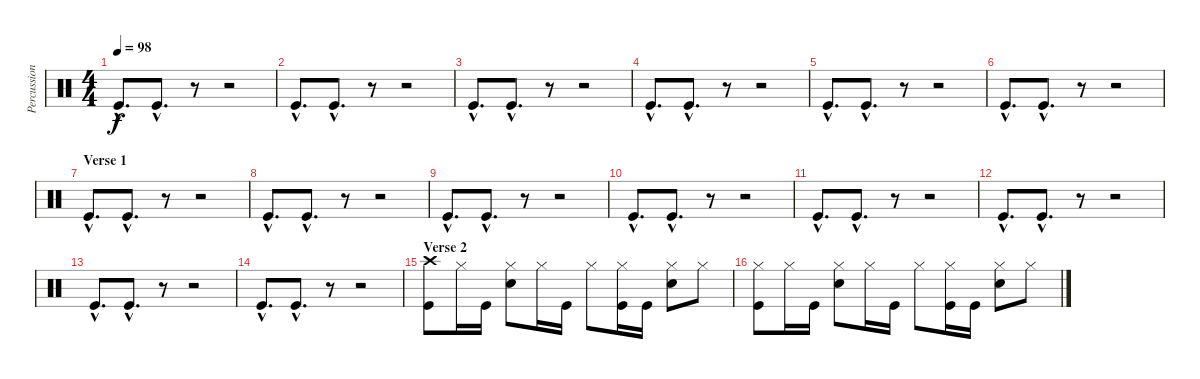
\track ("Percussion" "Percussion") {instrument percussion}
\staff {score}
\articulation defaults
\ts (4 4)
\tempo 98
\clef neutral
\ks c "Kick (hit)"{hac}.8{d dy f} "Kick (hit)"{hac}.8{d}
r.8 r.2 |
"Kick (hit)"{hac}.8{d} "Kick (hit)"{hac}.8{d} r.8 r.2 |
"Kick (hit)"{hac}.8{d} "Kick (hit)"{hac}.8{d} r.8 r.2 |
"Kick (hit)"{hac}.8{d} "Kick (hit)"{hac}.8{d} r.8 r.2 |
"Kick (hit)"{hac}.8{d} "Kick (hit)"{hac}.8{d} r.8 r.2 |
"Kick (hit)"{hac}.8{d} "Kick (hit)"{hac}.8{d} r.8 r.2 |
\section ("" "Verse 1")
"Kick (hit)"{hac}.8{d} "Kick (hit)"{hac}.8{d} r.8 r.2 |
"Kick (hit)"{hac}.8{d} "Kick (hit)"{hac}.8{d} r.8 r.2 |
"Kick (hit)"{hac}.8{d} "Kick (hit)"{hac}.8{d} r.8 r.2 |
"Kick (hit)"{hac}.8{d} "Kick (hit)"{hac}.8{d} r.8 r.2 |
"Kick (hit)"{hac}.8{d} "Kick (hit)"{hac}.8{d} r.8 r.2 |
"Kick (hit)"{hac}.8{d} "Kick (hit)"{hac}.8{d} r.8 r.2 |
"Kick (hit)"{hac}.8{d} "Kick (hit)"{hac}.8{d} r.8 r.2 |
"Kick (hit)"{hac}.8{d} "Kick (hit)"{hac}.8{d} r.8 r.2 |
\section ("" "Verse 2")
("Crash high (hit)" "Kick (hit)").8{volume 14} "Hi-Hat (closed)".16 "Kick (hit)".16 ("Hi-Hat (closed)" "Electric Snare (hit)").8 "Hi-Hat (closed)".16 "Kick (hit)".16 "Hi-Hat (closed)".8 ("Hi-Hat (closed)" "Kick (hit)").16 "Kick (hit)".16 ("Hi-Hat (closed)" "Electric Snare (hit)").8 "Hi-Hat (closed)".8 |
("Hi-Hat (closed)" "Kick (hit)").8{volume 14} "Hi-Hat (closed)".16 "Kick (hit)".16 ("Hi-Hat (closed)" "Electric Snare (hit)").8 "Hi-Hat (closed)".16 "Kick (hit)".16 "Hi-Hat (closed)".8 ("Hi-Hat (closed)" "Kick (hit)").16 "Kick (hit)".16 ("Hi-Hat (closed)" "Electric Snare (hit)").8 "Hi-Hat (closed)".8
